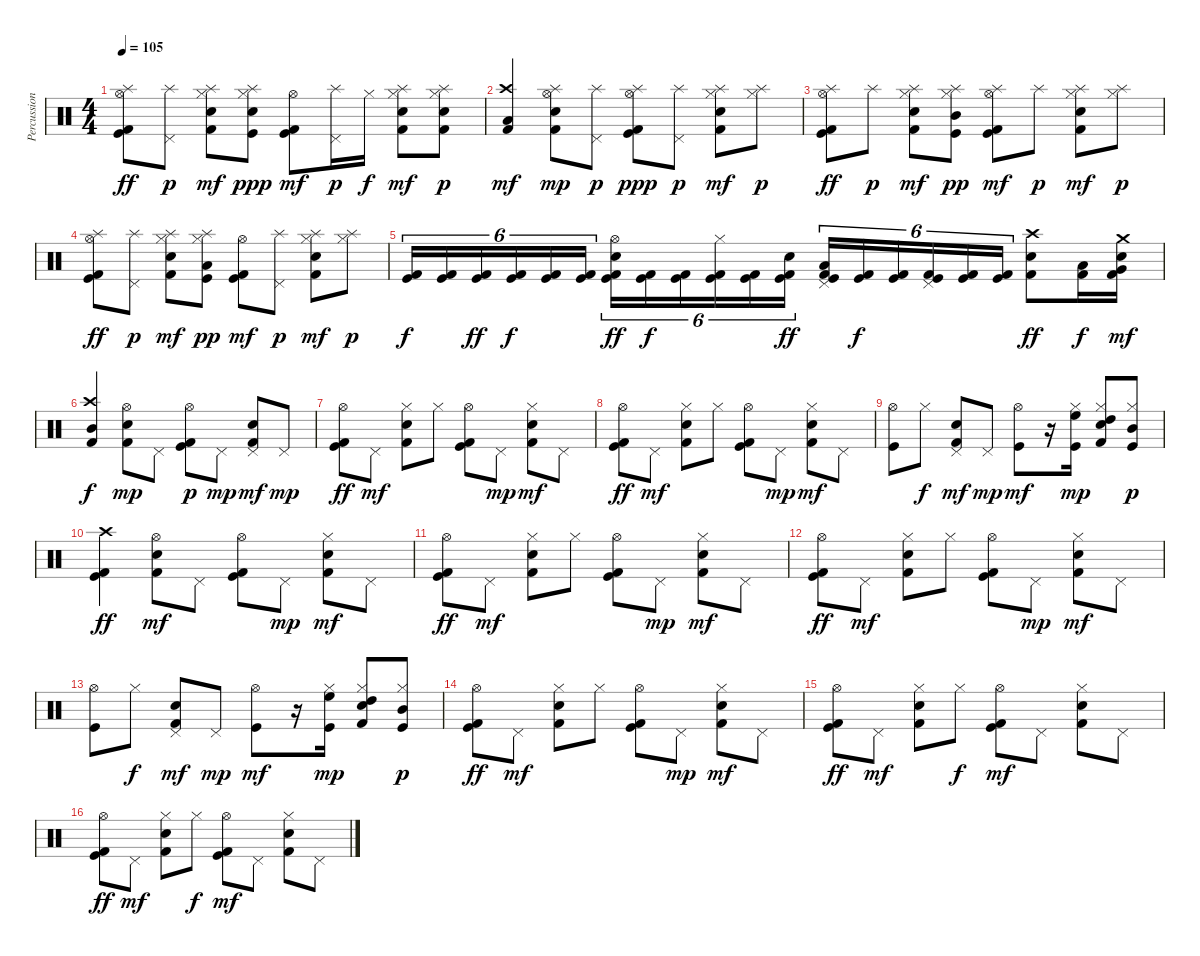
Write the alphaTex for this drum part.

\track ("Percussion" "Percussion") {instrument percussion}
\staff {score}
\articulation defaults
\ts (4 4)
\tempo 105
\clef neutral
\ks c
("Hi-Hat (open)" "Splash (hit)" "Kick (hit)" "Kick (hit) 2").8{dy ff} ("Pedal Hi-Hat (hit)" "Splash (hit)").8{dy p} ("Electric Snare (hit)" "Hi-Hat (closed)" "Splash (hit)" "Kick (hit) 2").8{dy mf} ("Snare (hit) 2" "Hi-Hat (closed)" "Splash (hit)" "Kick (hit)").8{dy ppp} ("Hi-Hat (open)" "Kick (hit)" "Kick (hit) 2").8{dy mf} ("Pedal Hi-Hat (hit)" "Splash (hit)").16{dy p} "Hi-Hat (closed)".16{dy f} ("Electric Snare (hit)" "Hi-Hat (closed)" "Splash (hit)" "Kick (hit) 2").8{dy mf} ("Snare (hit) 2" "Hi-Hat (closed)" "Splash (hit)" "Kick (hit) 2").8{dy p} |
("Crash high (hit)" "Low Floor Tom (hit)" "Kick (hit) 2").4{dy mf} ("Electric Snare (hit)" "Hi-Hat (open)" "Splash (hit)" "Kick (hit) 2").8{dy mp} ("Pedal Hi-Hat (hit)" "Splash (hit)").8{dy p} ("Hi-Hat (open)" "Splash (hit)" "Kick (hit)" "Kick (hit) 2").8{dy ppp} ("Pedal Hi-Hat (hit)" "Splash (hit)").8{dy p} ("Electric Snare (hit)" "Hi-Hat (closed)" "Splash (hit)" "Kick (hit) 2").8{dy mf} ("Hi-Hat (closed)" "Splash (hit)").8{dy p} |
("Hi-Hat (open)" "Splash (hit)" "Kick (hit)" "Kick (hit) 2").8{dy ff} "Splash (hit)".8{dy p} ("Electric Snare (hit)" "Hi-Hat (closed)" "Splash (hit)" "Kick (hit) 2").8{dy mf} ("Mid Tom (hit)" "Hi-Hat (closed)" "Splash (hit)" "Kick (hit)").8{dy pp} ("Hi-Hat (open)" "Splash (hit)" "Kick (hit)" "Kick (hit) 2").8{dy mf} "Splash (hit)".8{dy p} ("Electric Snare (hit)" "Hi-Hat (closed)" "Splash (hit)" "Kick (hit) 2").8{dy mf} ("Hi-Hat (closed)" "Splash (hit)").8{dy p} |
("Hi-Hat (open)" "Splash (hit)" "Kick (hit)" "Kick (hit) 2").8{dy ff} ("Pedal Hi-Hat (hit)" "Splash (hit)").8{dy p} ("Electric Snare (hit)" "Hi-Hat (closed)" "Splash (hit)" "Kick (hit) 2").8{dy mf} ("Low Tom (hit)" "Hi-Hat (closed)" "Splash (hit)" "Kick (hit)").8{dy pp} ("Hi-Hat (open)" "Kick (hit)" "Kick (hit) 2").8{dy mf} ("Pedal Hi-Hat (hit)" "Splash (hit)").8{dy p} ("Electric Snare (hit)" "Hi-Hat (closed)" "Splash (hit)" "Kick (hit) 2").8{dy mf} ("Hi-Hat (closed)" "Splash (hit)").8{dy p} |
("Kick (hit)" "Kick (hit) 2").16{tu (6 4) dy f} ("Kick (hit)" "Kick (hit) 2").16{tu (6 4)} ("Kick (hit)" "Kick (hit) 2").16{tu (6 4) dy ff} ("Kick (hit)" "Kick (hit) 2").16{tu (6 4) dy f} ("Kick (hit)" "Kick (hit) 2").16{tu (6 4)} ("Kick (hit)" "Kick (hit) 2").16{tu (6 4)} ("Hi-Hat (open)" "Electric Snare (hit)" "Kick (hit)" "Kick (hit) 2").16{tu (6 4) dy ff} ("Kick (hit)" "Kick (hit) 2").16{tu (6 4) dy f} ("Kick (hit)" "Kick (hit) 2").16{tu (6 4)} ("Hi-Hat (closed)" "Kick (hit)" "Kick (hit) 2").16{tu (6 4)} ("Kick (hit)" "Kick (hit) 2").16{tu (6 4)} ("Snare (hit) 2" "Kick (hit)" "Kick (hit) 2").16{tu (6 4) dy ff} ("Pedal Hi-Hat (hit)" "Low Tom (hit)" "Kick (hit)" "Kick (hit) 2").16{tu (6 4)} ("Kick (hit)" "Kick (hit) 2").16{tu (6 4) dy f} ("Kick (hit)" "Kick (hit) 2").16{tu (6 4)} ("Pedal Hi-Hat (hit)" "Kick (hit)" "Kick (hit) 2").16{tu (6 4)} ("Kick (hit)" "Kick (hit) 2").16{tu (6 4)} ("Kick (hit)" "Kick (hit) 2").16{tu (6 4)} ("Crash high (hit)" "Electric Snare (hit)" "Kick (hit) 2").8{dy ff} ("Low Tom (hit)" "Kick (hit) 2").16{dy f} ("Crash medium (hit)" "Electric Snare (hit)" "Very Low Tom (hit)" "Kick (hit) 2").16{dy mf} |
("Crash high (hit)" "Mid Tom (hit)" "Kick (hit) 2").4{dy f} ("Electric Snare (hit)" "Hi-Hat (open)" "Kick (hit) 2").8{dy mp} "Pedal Hi-Hat (hit)".8 ("Hi-Hat (open)" "Kick (hit)" "Kick (hit) 2").8{dy p} "Pedal Hi-Hat (hit)".8{dy mp} ("Electric Snare (hit)" "Pedal Hi-Hat (hit)" "Kick (hit) 2").8{dy mf} "Pedal Hi-Hat (hit)".8{dy mp} |
("Hi-Hat (open)" "Kick (hit)" "Kick (hit) 2").8{dy ff} "Pedal Hi-Hat (hit)".8{dy mf} ("Electric Snare (hit)" "Hi-Hat (closed)" "Kick (hit) 2").8 "Hi-Hat (closed)".8 ("Hi-Hat (open)" "Kick (hit)" "Kick (hit) 2").8 "Pedal Hi-Hat (hit)".8{dy mp} ("Electric Snare (hit)" "Hi-Hat (closed)" "Kick (hit) 2").8{dy mf} "Pedal Hi-Hat (hit)".8 |
("Hi-Hat (open)" "Kick (hit)" "Kick (hit) 2").8{dy ff} "Pedal Hi-Hat (hit)".8{dy mf} ("Electric Snare (hit)" "Hi-Hat (closed)" "Kick (hit) 2").8 "Hi-Hat (closed)".8 ("Hi-Hat (open)" "Kick (hit)" "Kick (hit) 2").8 "Pedal Hi-Hat (hit)".8{dy mp} ("Electric Snare (hit)" "Hi-Hat (closed)" "Kick (hit) 2").8{dy mf} "Pedal Hi-Hat (hit)".8 |
("Hi-Hat (open)" "Kick (hit)").8 "Hi-Hat (closed)".8{dy f} ("Electric Snare (hit)" "Pedal Hi-Hat (hit)" "Kick (hit) 2").8{dy mf} "Pedal Hi-Hat (hit)".8{dy mp} ("Hi-Hat (open)" "Kick (hit)").8{dy mf} r.16 ("Hi-Hat (closed)" "High Floor Tom (hit)" "Kick (hit)").16{dy mp} ("Electric Snare (hit)" "Hi-Hat (closed)" "High Tom (hit)" "Kick (hit) 2").8 ("Hi-Hat (closed)" "Mid Tom (hit)" "Kick (hit)").8{dy p} |
("Crash high (hit)" "Kick (hit)" "Kick (hit) 2").4{dy ff} ("Electric Snare (hit)" "Hi-Hat (open)" "Kick (hit) 2").8{dy mf} "Pedal Hi-Hat (hit)".8 ("Hi-Hat (open)" "Kick (hit)" "Kick (hit) 2").8 "Pedal Hi-Hat (hit)".8{dy mp} ("Electric Snare (hit)" "Hi-Hat (closed)" "Kick (hit) 2").8{dy mf} "Pedal Hi-Hat (hit)".8 |
("Hi-Hat (open)" "Kick (hit)" "Kick (hit) 2").8{dy ff} "Pedal Hi-Hat (hit)".8{dy mf} ("Electric Snare (hit)" "Hi-Hat (closed)" "Kick (hit) 2").8 "Hi-Hat (closed)".8 ("Hi-Hat (open)" "Kick (hit)" "Kick (hit) 2").8 "Pedal Hi-Hat (hit)".8{dy mp} ("Electric Snare (hit)" "Hi-Hat (closed)" "Kick (hit) 2").8{dy mf} "Pedal Hi-Hat (hit)".8 |
("Hi-Hat (open)" "Kick (hit)" "Kick (hit) 2").8{dy ff} "Pedal Hi-Hat (hit)".8{dy mf} ("Electric Snare (hit)" "Hi-Hat (closed)" "Kick (hit) 2").8 "Hi-Hat (closed)".8 ("Hi-Hat (open)" "Kick (hit)" "Kick (hit) 2").8 "Pedal Hi-Hat (hit)".8{dy mp} ("Electric Snare (hit)" "Hi-Hat (closed)" "Kick (hit) 2").8{dy mf} "Pedal Hi-Hat (hit)".8 |
("Hi-Hat (open)" "Kick (hit)").8 "Hi-Hat (closed)".8{dy f} ("Electric Snare (hit)" "Pedal Hi-Hat (hit)" "Kick (hit) 2").8{dy mf} "Pedal Hi-Hat (hit)".8{dy mp} ("Hi-Hat (open)" "Kick (hit)").8{dy mf} r.16 ("Hi-Hat (closed)" "High Floor Tom (hit)" "Kick (hit)").16{dy mp} ("Electric Snare (hit)" "Hi-Hat (closed)" "High Tom (hit)" "Kick (hit) 2").8 ("Hi-Hat (closed)" "Mid Tom (hit)" "Kick (hit)").8{dy p} |
("Hi-Hat (open)" "Kick (hit)" "Kick (hit) 2").8{dy ff} "Pedal Hi-Hat (hit)".8{dy mf} ("Electric Snare (hit)" "Hi-Hat (closed)" "Kick (hit) 2").8 "Hi-Hat (closed)".8 ("Hi-Hat (open)" "Kick (hit)" "Kick (hit) 2").8 "Pedal Hi-Hat (hit)".8{dy mp} ("Electric Snare (hit)" "Hi-Hat (closed)" "Kick (hit) 2").8{dy mf} "Pedal Hi-Hat (hit)".8 |
("Hi-Hat (open)" "Kick (hit)" "Kick (hit) 2").8{dy ff} "Pedal Hi-Hat (hit)".8{dy mf} ("Electric Snare (hit)" "Hi-Hat (closed)" "Kick (hit) 2").8 "Hi-Hat (closed)".8{dy f} ("Hi-Hat (open)" "Kick (hit)" "Kick (hit) 2").8{dy mf} "Pedal Hi-Hat (hit)".8 ("Electric Snare (hit)" "Hi-Hat (closed)" "Kick (hit) 2").8 "Pedal Hi-Hat (hit)".8 |
("Hi-Hat (open)" "Kick (hit)" "Kick (hit) 2").8{dy ff} "Pedal Hi-Hat (hit)".8{dy mf} ("Electric Snare (hit)" "Hi-Hat (closed)" "Kick (hit) 2").8 "Hi-Hat (closed)".8{dy f} ("Hi-Hat (open)" "Kick (hit)" "Kick (hit) 2").8{dy mf} "Pedal Hi-Hat (hit)".8 ("Electric Snare (hit)" "Hi-Hat (closed)" "Kick (hit) 2").8 "Pedal Hi-Hat (hit)".8
